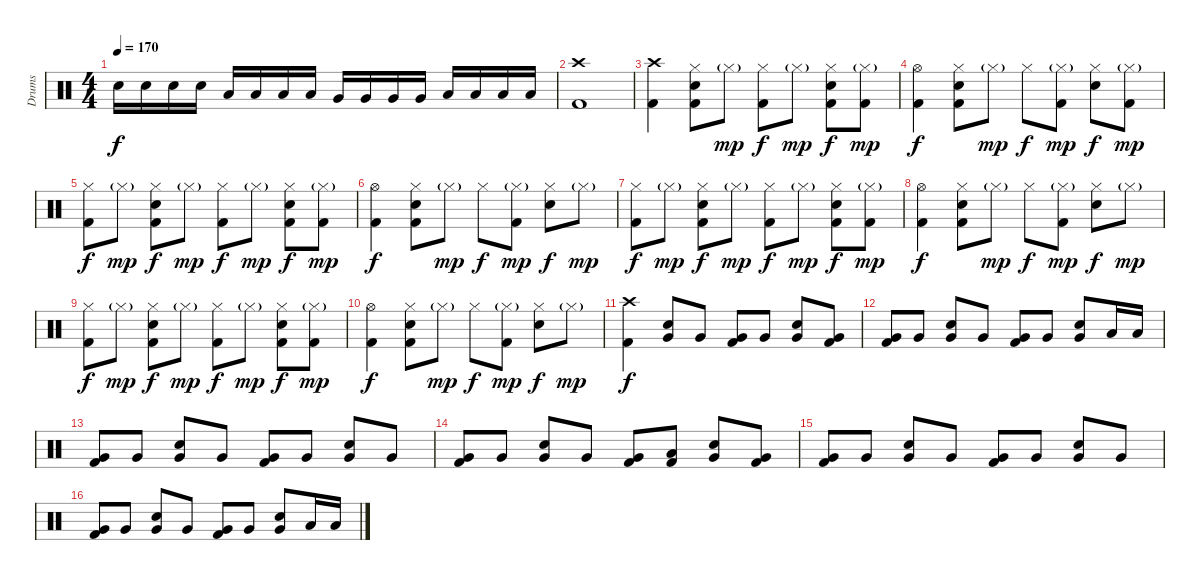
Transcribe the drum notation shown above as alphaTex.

\track ("Drums" "Drums") {instrument percussion}
\staff {score}
\articulation defaults
\ts (4 4)
\tempo 170
\clef neutral
\ks c "Snare (hit) 2".16{dy f} "Snare (hit) 2".16 "Snare (hit) 2".16 "Snare (hit) 2".16 "Low Tom (hit)".16 "Low Tom (hit)".16 "Low Tom (hit)".16 "Low Tom (hit)".16 "Very Low Tom (hit)".16 "Very Low Tom (hit)".16 "Very Low Tom (hit)".16 "Very Low Tom (hit)".16 "Low Floor Tom (hit)".16 "Low Floor Tom (hit)".16 "Low Floor Tom (hit)".16 "Low Floor Tom (hit)".16
|
("Crash high (hit)" "Kick (hit) 2").1 |
("Crash high (hit)" "Kick (hit) 2").4 ("Hi-Hat (closed)" "Snare (hit) 2" "Kick (hit) 2").8 "Hi-Hat (closed)"{g}.8{dy mp} ("Hi-Hat (closed)" "Kick (hit) 2").8{dy f} "Hi-Hat (closed)"{g}.8{dy mp} ("Hi-Hat (closed)" "Snare (hit) 2" "Kick (hit) 2").8{dy f} ("Hi-Hat (closed)"{g} "Kick (hit) 2").8{dy mp} |
("Hi-Hat (open)" "Kick (hit) 2").4{dy f} ("Hi-Hat (closed)" "Snare (hit) 2" "Kick (hit) 2").8 "Hi-Hat (closed)"{g}.8{dy mp} "Hi-Hat (closed)".8{dy f} ("Hi-Hat (closed)"{g} "Kick (hit) 2").8{dy mp} ("Hi-Hat (closed)" "Snare (hit) 2").8{dy f} ("Hi-Hat (closed)"{g} "Kick (hit) 2").8{dy mp} |
("Hi-Hat (closed)" "Kick (hit) 2").8{dy f} "Hi-Hat (closed)"{g}.8{dy mp} ("Hi-Hat (closed)" "Snare (hit) 2" "Kick (hit) 2").8{dy f} "Hi-Hat (closed)"{g}.8{dy mp} ("Hi-Hat (closed)" "Kick (hit) 2").8{dy f} "Hi-Hat (closed)"{g}.8{dy mp} ("Hi-Hat (closed)" "Snare (hit) 2" "Kick (hit) 2").8{dy f} ("Hi-Hat (closed)"{g} "Kick (hit) 2").8{dy mp} |
("Hi-Hat (open)" "Kick (hit) 2").4{dy f} ("Hi-Hat (closed)" "Snare (hit) 2" "Kick (hit) 2").8 "Hi-Hat (closed)"{g}.8{dy mp} "Hi-Hat (closed)".8{dy f} ("Hi-Hat (closed)"{g} "Kick (hit) 2").8{dy mp} ("Hi-Hat (closed)" "Snare (hit) 2").8{dy f} "Hi-Hat (closed)"{g}.8{dy mp} |
("Hi-Hat (closed)" "Kick (hit) 2").8{dy f} "Hi-Hat (closed)"{g}.8{dy mp} ("Hi-Hat (closed)" "Snare (hit) 2" "Kick (hit) 2").8{dy f} "Hi-Hat (closed)"{g}.8{dy mp} ("Hi-Hat (closed)" "Kick (hit) 2").8{dy f} "Hi-Hat (closed)"{g}.8{dy mp} ("Hi-Hat (closed)" "Snare (hit) 2" "Kick (hit) 2").8{dy f} ("Hi-Hat (closed)"{g} "Kick (hit) 2").8{dy mp} |
("Hi-Hat (open)" "Kick (hit) 2").4{dy f} ("Hi-Hat (closed)" "Snare (hit) 2" "Kick (hit) 2").8 "Hi-Hat (closed)"{g}.8{dy mp} "Hi-Hat (closed)".8{dy f} ("Hi-Hat (closed)"{g} "Kick (hit) 2").8{dy mp} ("Hi-Hat (closed)" "Snare (hit) 2").8{dy f} "Hi-Hat (closed)"{g}.8{dy mp} |
("Hi-Hat (closed)" "Kick (hit) 2").8{dy f} "Hi-Hat (closed)"{g}.8{dy mp} ("Hi-Hat (closed)" "Snare (hit) 2" "Kick (hit) 2").8{dy f} "Hi-Hat (closed)"{g}.8{dy mp} ("Hi-Hat (closed)" "Kick (hit) 2").8{dy f} "Hi-Hat (closed)"{g}.8{dy mp} ("Hi-Hat (closed)" "Snare (hit) 2" "Kick (hit) 2").8{dy f} ("Hi-Hat (closed)"{g} "Kick (hit) 2").8{dy mp} |
("Hi-Hat (open)" "Kick (hit) 2").4{dy f} ("Hi-Hat (closed)" "Snare (hit) 2" "Kick (hit) 2").8 "Hi-Hat (closed)"{g}.8{dy mp} "Hi-Hat (closed)".8{dy f} ("Hi-Hat (closed)"{g} "Kick (hit) 2").8{dy mp} ("Hi-Hat (closed)" "Snare (hit) 2").8{dy f} "Hi-Hat (closed)"{g}.8{dy mp} |
("Crash high (hit)" "Kick (hit) 2").4{dy f} ("Very Low Tom (hit)" "Snare (hit) 2").8 "Very Low Tom (hit)".8 ("Very Low Tom (hit)" "Kick (hit) 2").8 "Very Low Tom (hit)".8 ("Very Low Tom (hit)" "Snare (hit) 2").8 ("Very Low Tom (hit)" "Kick (hit) 2").8 |
("Very Low Tom (hit)" "Kick (hit) 2").8 "Very Low Tom (hit)".8 ("Very Low Tom (hit)" "Snare (hit) 2").8 "Very Low Tom (hit)".8 ("Very Low Tom (hit)" "Kick (hit) 2").8 "Very Low Tom (hit)".8 ("Very Low Tom (hit)" "Snare (hit) 2").8 "Low Tom (hit)".16 "Low Tom (hit)".16 |
("Very Low Tom (hit)" "Kick (hit) 2").8 "Very Low Tom (hit)".8 ("Very Low Tom (hit)" "Snare (hit) 2").8 "Very Low Tom (hit)".8 ("Very Low Tom (hit)" "Kick (hit) 2").8 "Very Low Tom (hit)".8 ("Very Low Tom (hit)" "Snare (hit) 2").8 "Very Low Tom (hit)".8 |
("Very Low Tom (hit)" "Kick (hit) 2").8 "Very Low Tom (hit)".8 ("Very Low Tom (hit)" "Snare (hit) 2").8 "Very Low Tom (hit)".8 ("Very Low Tom (hit)" "Kick (hit) 2").8 ("Low Tom (hit)" "Kick (hit) 2").8 ("Very Low Tom (hit)" "Snare (hit) 2").8 ("Very Low Tom (hit)" "Kick (hit) 2").8 |
("Very Low Tom (hit)" "Kick (hit) 2").8 "Very Low Tom (hit)".8 ("Very Low Tom (hit)" "Snare (hit) 2").8 "Very Low Tom (hit)".8 ("Very Low Tom (hit)" "Kick (hit) 2").8 "Very Low Tom (hit)".8 ("Very Low Tom (hit)" "Snare (hit) 2").8 "Very Low Tom (hit)".8 |
("Very Low Tom (hit)" "Kick (hit) 2").8 "Very Low Tom (hit)".8 ("Very Low Tom (hit)" "Snare (hit) 2").8 "Very Low Tom (hit)".8 ("Very Low Tom (hit)" "Kick (hit) 2").8 "Very Low Tom (hit)".8 ("Very Low Tom (hit)" "Snare (hit) 2").8 "Low Tom (hit)".16 "Low Tom (hit)".16
